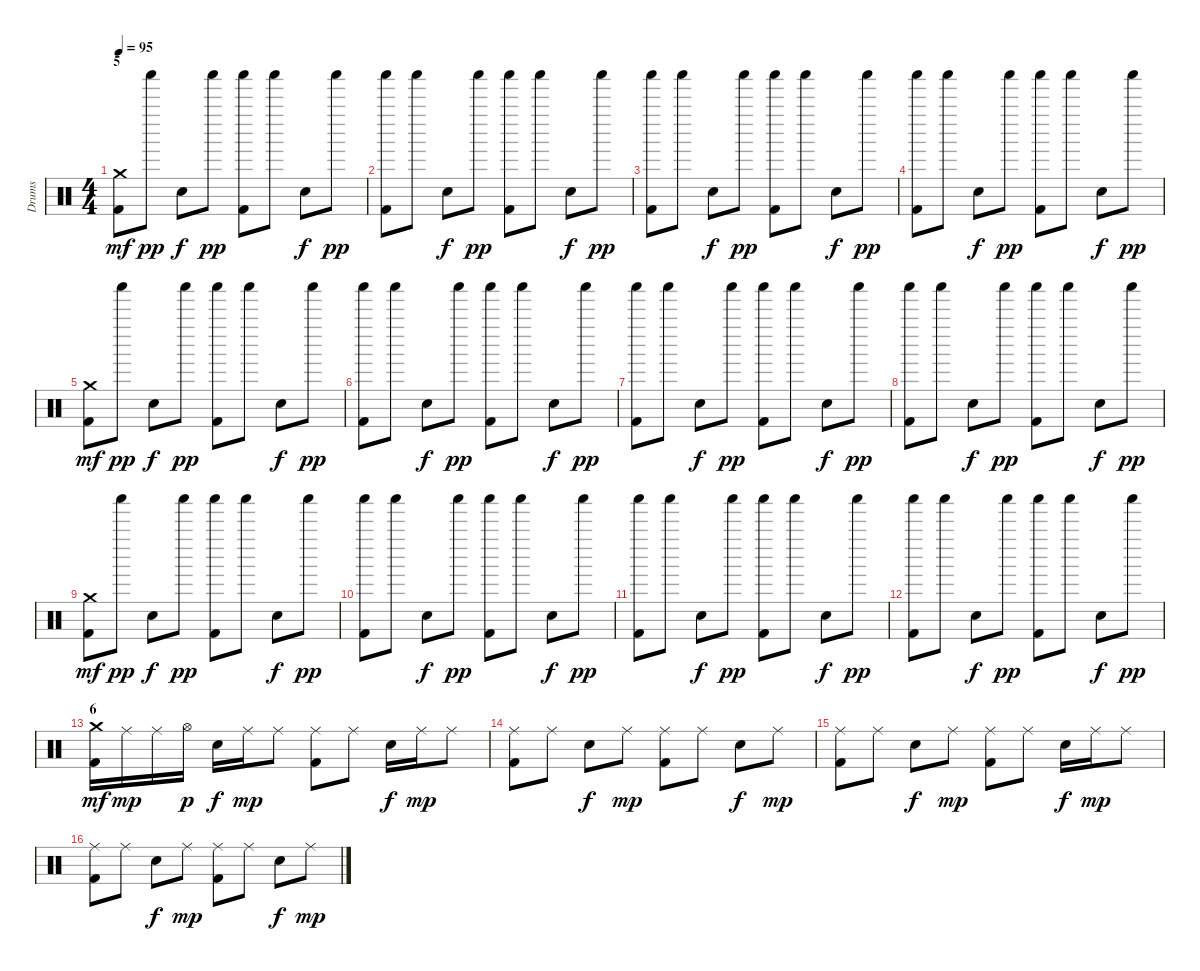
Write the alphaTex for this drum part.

\track ("Drums" "Drums") {instrument percussion}
\staff {score}
\articulation defaults
\ts (4 4)
\section ("" "5")
\tempo 95
\clef neutral
\ks c
("Kick (hit) 2" "Crash medium (hit)").8{dy mf} "Shaker (hit)".8{dy pp} "Electric Snare (hit)".8{dy f} "Shaker (hit)".8{dy pp} ("Kick (hit) 2" "Shaker (hit)").8 "Shaker (hit)".8 "Electric Snare (hit)".8{dy f} "Shaker (hit)".8{dy pp} |
("Kick (hit) 2" "Shaker (hit)").8 "Shaker (hit)".8 "Electric Snare (hit)".8{dy f} "Shaker (hit)".8{dy pp} ("Kick (hit) 2" "Shaker (hit)").8 "Shaker (hit)".8 "Electric Snare (hit)".8{dy f} "Shaker (hit)".8{dy pp} |
("Kick (hit) 2" "Shaker (hit)").8 "Shaker (hit)".8 "Electric Snare (hit)".8{dy f} "Shaker (hit)".8{dy pp} ("Kick (hit) 2" "Shaker (hit)").8 "Shaker (hit)".8 "Electric Snare (hit)".8{dy f} "Shaker (hit)".8{dy pp} |
("Kick (hit) 2" "Shaker (hit)").8 "Shaker (hit)".8 "Electric Snare (hit)".8{dy f} "Shaker (hit)".8{dy pp} ("Kick (hit) 2" "Shaker (hit)").8 "Shaker (hit)".8 "Electric Snare (hit)".8{dy f} "Shaker (hit)".8{dy pp} |
("Kick (hit) 2" "Crash medium (hit)").8{dy mf} "Shaker (hit)".8{dy pp} "Electric Snare (hit)".8{dy f} "Shaker (hit)".8{dy pp} ("Kick (hit) 2" "Shaker (hit)").8 "Shaker (hit)".8 "Electric Snare (hit)".8{dy f} "Shaker (hit)".8{dy pp} |
("Kick (hit) 2" "Shaker (hit)").8 "Shaker (hit)".8 "Electric Snare (hit)".8{dy f} "Shaker (hit)".8{dy pp} ("Kick (hit) 2" "Shaker (hit)").8 "Shaker (hit)".8 "Electric Snare (hit)".8{dy f} "Shaker (hit)".8{dy pp} |
("Kick (hit) 2" "Shaker (hit)").8 "Shaker (hit)".8 "Electric Snare (hit)".8{dy f} "Shaker (hit)".8{dy pp} ("Kick (hit) 2" "Shaker (hit)").8 "Shaker (hit)".8 "Electric Snare (hit)".8{dy f} "Shaker (hit)".8{dy pp} |
("Kick (hit) 2" "Shaker (hit)").8 "Shaker (hit)".8 "Electric Snare (hit)".8{dy f} "Shaker (hit)".8{dy pp} ("Kick (hit) 2" "Shaker (hit)").8 "Shaker (hit)".8 "Electric Snare (hit)".8{dy f} "Shaker (hit)".8{dy pp} |
("Kick (hit) 2" "Crash medium (hit)").8{dy mf} "Shaker (hit)".8{dy pp} "Electric Snare (hit)".8{dy f} "Shaker (hit)".8{dy pp} ("Kick (hit) 2" "Shaker (hit)").8 "Shaker (hit)".8 "Electric Snare (hit)".8{dy f} "Shaker (hit)".8{dy pp} |
("Kick (hit) 2" "Shaker (hit)").8 "Shaker (hit)".8 "Electric Snare (hit)".8{dy f} "Shaker (hit)".8{dy pp} ("Kick (hit) 2" "Shaker (hit)").8 "Shaker (hit)".8 "Electric Snare (hit)".8{dy f} "Shaker (hit)".8{dy pp} |
("Kick (hit) 2" "Shaker (hit)").8 "Shaker (hit)".8 "Electric Snare (hit)".8{dy f} "Shaker (hit)".8{dy pp} ("Kick (hit) 2" "Shaker (hit)").8 "Shaker (hit)".8 "Electric Snare (hit)".8{dy f} "Shaker (hit)".8{dy pp} |
("Kick (hit) 2" "Shaker (hit)").8 "Shaker (hit)".8 "Electric Snare (hit)".8{dy f} "Shaker (hit)".8{dy pp} ("Kick (hit) 2" "Shaker (hit)").8 "Shaker (hit)".8 "Electric Snare (hit)".8{dy f} "Shaker (hit)".8{dy pp} |
\section ("" "6")
("Kick (hit) 2" "Crash medium (hit)").16{dy mf} "Ride (middle)".16{dy mp} "Ride (middle)".16 "Hi-Hat (open)".16{dy p} "Electric Snare (hit)".16{dy f} "Ride (middle)".16{dy mp} "Ride (middle)".8 ("Kick (hit) 2" "Ride (middle)").8 "Ride (middle)".8 "Electric Snare (hit)".16{dy f} "Ride (middle)".16{dy mp} "Ride (middle)".8 |
("Kick (hit) 2" "Ride (middle)").8 "Ride (middle)".8 "Electric Snare (hit)".8{dy f} "Ride (middle)".8{dy mp} ("Kick (hit) 2" "Ride (middle)").8 "Ride (middle)".8 "Electric Snare (hit)".8{dy f} "Ride (middle)".8{dy mp} |
("Kick (hit) 2" "Ride (middle)").8 "Ride (middle)".8 "Electric Snare (hit)".8{dy f} "Ride (middle)".8{dy mp} ("Kick (hit) 2" "Ride (middle)").8 "Ride (middle)".8 "Electric Snare (hit)".16{dy f} "Ride (middle)".16{dy mp} "Ride (middle)".8 |
("Kick (hit) 2" "Ride (middle)").8 "Ride (middle)".8 "Electric Snare (hit)".8{dy f} "Ride (middle)".8{dy mp} ("Kick (hit) 2" "Ride (middle)").8 "Ride (middle)".8 "Electric Snare (hit)".8{dy f} "Ride (middle)".8{dy mp}
